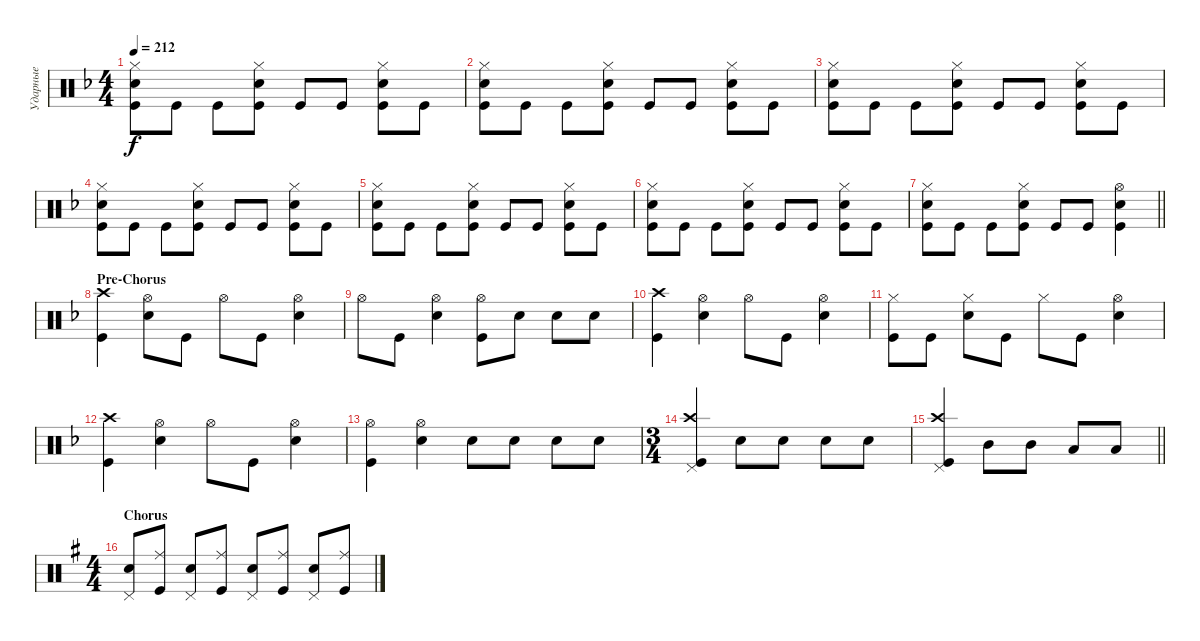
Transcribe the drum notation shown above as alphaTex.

\track ("Ударные" "Ударные") {instrument percussion}
\staff {score}
\articulation defaults
\ts (4 4)
\tempo 212
\clef neutral
\ks dminor
("Hi-Hat (closed)" "Kick (hit)" "Snare (hit) 2").8{dy f} "Kick (hit)".8 "Kick (hit)".8 ("Snare (hit) 2" "Hi-Hat (closed)" "Kick (hit)").8 "Kick (hit)".8 "Kick (hit)".8 ("Hi-Hat (closed)" "Kick (hit)" "Snare (hit) 2").8 "Kick (hit)".8 |
("Hi-Hat (closed)" "Kick (hit)" "Snare (hit) 2").8 "Kick (hit)".8 "Kick (hit)".8 ("Snare (hit) 2" "Hi-Hat (closed)" "Kick (hit)").8 "Kick (hit)".8 "Kick (hit)".8 ("Hi-Hat (closed)" "Kick (hit)" "Snare (hit) 2").8 "Kick (hit)".8 |
("Hi-Hat (closed)" "Kick (hit)" "Snare (hit) 2").8 "Kick (hit)".8 "Kick (hit)".8 ("Snare (hit) 2" "Hi-Hat (closed)" "Kick (hit)").8 "Kick (hit)".8 "Kick (hit)".8 ("Hi-Hat (closed)" "Kick (hit)" "Snare (hit) 2").8 "Kick (hit)".8 |
("Hi-Hat (closed)" "Kick (hit)" "Snare (hit) 2").8 "Kick (hit)".8 "Kick (hit)".8 ("Snare (hit) 2" "Hi-Hat (closed)" "Kick (hit)").8 "Kick (hit)".8 "Kick (hit)".8 ("Hi-Hat (closed)" "Kick (hit)" "Snare (hit) 2").8 "Kick (hit)".8 |
("Hi-Hat (closed)" "Kick (hit)" "Snare (hit) 2").8 "Kick (hit)".8 "Kick (hit)".8 ("Snare (hit) 2" "Hi-Hat (closed)" "Kick (hit)").8 "Kick (hit)".8 "Kick (hit)".8 ("Hi-Hat (closed)" "Kick (hit)" "Snare (hit) 2").8 "Kick (hit)".8 |
("Hi-Hat (closed)" "Kick (hit)" "Snare (hit) 2").8 "Kick (hit)".8 "Kick (hit)".8 ("Snare (hit) 2" "Hi-Hat (closed)" "Kick (hit)").8 "Kick (hit)".8 "Kick (hit)".8 ("Hi-Hat (closed)" "Kick (hit)" "Snare (hit) 2").8 "Kick (hit)".8 |
\barLineRight lightlight
("Hi-Hat (closed)" "Kick (hit)" "Snare (hit) 2").8 "Kick (hit)".8 "Kick (hit)".8 ("Snare (hit) 2" "Hi-Hat (closed)" "Kick (hit)").8 "Kick (hit)".8 "Kick (hit)".8 ("Hi-Hat (open)" "Kick (hit)" "Snare (hit) 2").4 |
\section ("" "Pre-Chorus")
("Kick (hit)" "Crash high (hit)").4 ("Snare (hit) 2" "Hi-Hat (open)").8 "Kick (hit)".8 "Hi-Hat (open)".8 "Kick (hit)".8 ("Snare (hit) 2" "Hi-Hat (open)").4 |
"Hi-Hat (open)".8 "Kick (hit)".8 ("Snare (hit) 2" "Hi-Hat (open)").4 ("Hi-Hat (open)" "Kick (hit)").8 "Snare (hit) 2".8 "Snare (hit) 2".8 "Snare (hit) 2".8 |
("Kick (hit)" "Crash high (hit)").4 ("Snare (hit) 2" "Hi-Hat (open)").4 "Hi-Hat (open)".8 "Kick (hit)".8 ("Snare (hit) 2" "Hi-Hat (open)").4 |
("Hi-Hat (closed)" "Kick (hit)").8 "Kick (hit)".8 ("Hi-Hat (closed)" "Snare (hit) 2").8 "Kick (hit)".8 "Hi-Hat (closed)".8 "Kick (hit)".8 ("Snare (hit) 2" "Hi-Hat (open)").4 |
("Kick (hit)" "Crash high (hit)").4 ("Snare (hit) 2" "Hi-Hat (open)").4 "Hi-Hat (open)".8 "Kick (hit)".8 ("Snare (hit) 2" "Hi-Hat (open)").4 |
("Hi-Hat (open)" "Kick (hit)").4 ("Hi-Hat (open)" "Snare (hit) 2").4 "Snare (hit) 2".8 "Snare (hit) 2".8 "Snare (hit) 2".8 "Snare (hit) 2".8 |
\ts (3 4)
("Kick (hit)" "Crash high (hit)" "Pedal Hi-Hat (hit)").4 "Snare (hit) 2".8 "Snare (hit) 2".8 "Snare (hit) 2".8 "Snare (hit) 2".8 |
\barLineRight lightlight
("Kick (hit)" "Pedal Hi-Hat (hit)" "Crash high (hit)").4 "Mid Tom (hit)".8 "Mid Tom (hit)".8 "Low Tom (hit)".8 "Low Tom (hit)".8 |
\ts (4 4)
\section ("" "Chorus")
\ks eminor
("Snare (hit) 2" "Pedal Hi-Hat (hit)").8 ("Kick (hit)" "Ride (middle)").8 ("Snare (hit) 2" "Pedal Hi-Hat (hit)").8 ("Kick (hit)" "Ride (middle)").8 ("Snare (hit) 2" "Pedal Hi-Hat (hit)").8 ("Kick (hit)" "Ride (middle)").8 ("Snare (hit) 2" "Pedal Hi-Hat (hit)").8 ("Kick (hit)" "Ride (middle)").8
